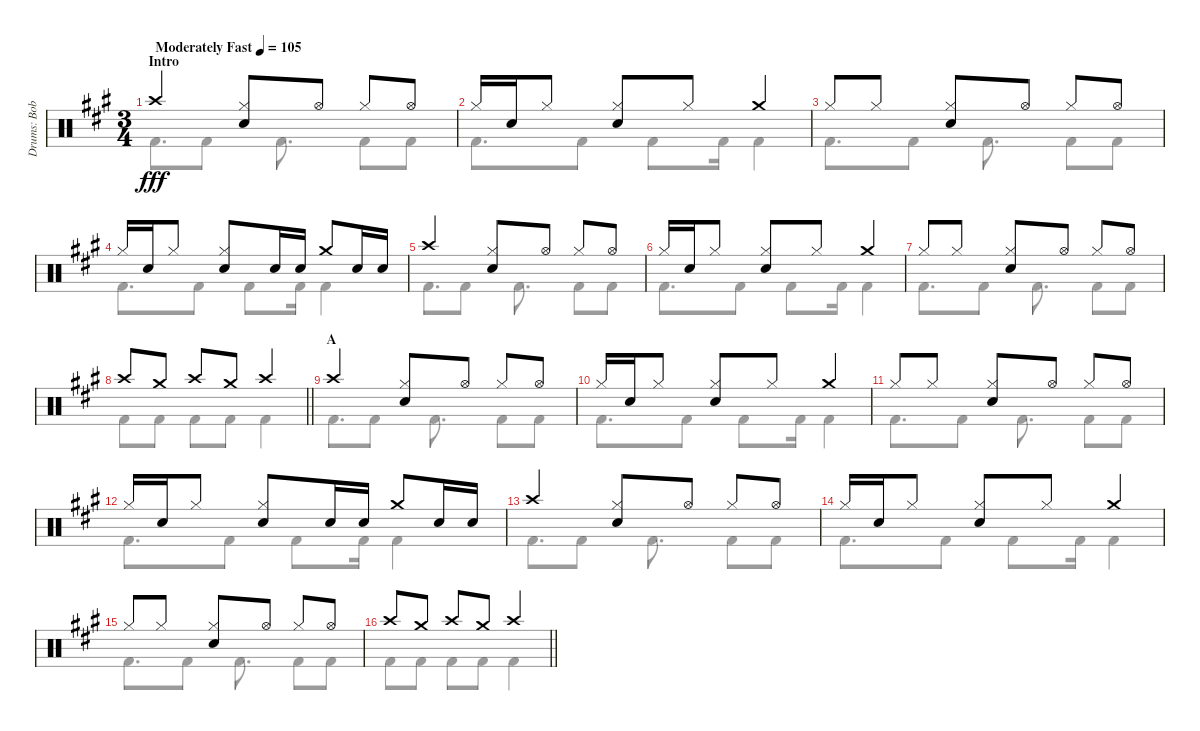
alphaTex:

\track ("Drums: Bobby" "Drums: Bob") {instrument percussion}
\staff {score}
\articulation defaults
\voice
\ts (3 4)
\section ("" "Intro")
\tempo (105 "Moderately Fast")
\clef neutral
\ks a "Crash high (hit)".4{dy fff}
("Hi-Hat (closed)" "Snare (hit) 2").8 "Hi-Hat (open)".8 "Hi-Hat (closed)".8 "Hi-Hat (open)".8 |
"Hi-Hat (closed)".16 "Snare (hit) 2".16 "Hi-Hat (closed)".8 ("Hi-Hat (closed)" "Snare (hit) 2").8 "Hi-Hat (closed)".8 "Crash medium (hit)".4 |
"Hi-Hat (closed)".8 "Hi-Hat (closed)".8 ("Hi-Hat (closed)" "Snare (hit) 2").8 "Hi-Hat (open)".8 "Hi-Hat (closed)".8 "Hi-Hat (open)".8 |
"Hi-Hat (closed)".16 "Snare (hit) 2".16 "Hi-Hat (closed)".8 ("Hi-Hat (closed)" "Snare (hit) 2").8 "Snare (hit) 2".16 "Snare (hit) 2".16 "Crash medium (hit)".8 "Snare (hit) 2".16 "Snare (hit) 2".16 |
"Crash high (hit)".4 ("Hi-Hat (closed)" "Snare (hit) 2").8 "Hi-Hat (open)".8 "Hi-Hat (closed)".8 "Hi-Hat (open)".8 |
"Hi-Hat (closed)".16 "Snare (hit) 2".16 "Hi-Hat (closed)".8 ("Hi-Hat (closed)" "Snare (hit) 2").8 "Hi-Hat (closed)".8 "Crash medium (hit)".4 |
"Hi-Hat (closed)".8 "Hi-Hat (closed)".8 ("Hi-Hat (closed)" "Snare (hit) 2").8 "Hi-Hat (open)".8 "Hi-Hat (closed)".8 "Hi-Hat (open)".8 |
\barLineRight lightlight "Crash high (hit)".8 "Crash medium (hit)".8 "Crash high (hit)".8 "Crash medium (hit)".8 "Crash high (hit)".4
|
\section ("" "A")
"Crash high (hit)".4 ("Hi-Hat (closed)" "Snare (hit) 2").8 "Hi-Hat (open)".8 "Hi-Hat (closed)".8 "Hi-Hat (open)".8 |
"Hi-Hat (closed)".16 "Snare (hit) 2".16 "Hi-Hat (closed)".8 ("Hi-Hat (closed)" "Snare (hit) 2").8 "Hi-Hat (closed)".8 "Crash medium (hit)".4 |
"Hi-Hat (closed)".8 "Hi-Hat (closed)".8 ("Hi-Hat (closed)" "Snare (hit) 2").8 "Hi-Hat (open)".8 "Hi-Hat (closed)".8 "Hi-Hat (open)".8 |
"Hi-Hat (closed)".16 "Snare (hit) 2".16 "Hi-Hat (closed)".8 ("Hi-Hat (closed)" "Snare (hit) 2").8 "Snare (hit) 2".16 "Snare (hit) 2".16 "Crash medium (hit)".8 "Snare (hit) 2".16 "Snare (hit) 2".16 |
"Crash high (hit)".4 ("Hi-Hat (closed)" "Snare (hit) 2").8 "Hi-Hat (open)".8 "Hi-Hat (closed)".8 "Hi-Hat (open)".8 |
"Hi-Hat (closed)".16 "Snare (hit) 2".16 "Hi-Hat (closed)".8 ("Hi-Hat (closed)" "Snare (hit) 2").8 "Hi-Hat (closed)".8 "Crash medium (hit)".4 |
"Hi-Hat (closed)".8 "Hi-Hat (closed)".8 ("Hi-Hat (closed)" "Snare (hit) 2").8 "Hi-Hat (open)".8 "Hi-Hat (closed)".8 "Hi-Hat (open)".8 |
\barLineRight lightlight "Crash high (hit)".8 "Crash medium (hit)".8 "Crash high (hit)".8 "Crash medium (hit)".8 "Crash high (hit)".4
\voice
\clef neutral
\ottava regular
\simile none
\ks a "Kick (hit) 2".8{d dy fff} "Kick (hit) 2".8 "Kick (hit) 2".8{d} "Kick (hit) 2".8 "Kick (hit) 2".8
|
"Kick (hit) 2".8{d} "Kick (hit) 2".8 "Kick (hit) 2".8 "Kick (hit) 2".16 "Kick (hit) 2".4 |
"Kick (hit) 2".8{d} "Kick (hit) 2".8 "Kick (hit) 2".8{d} "Kick (hit) 2".8 "Kick (hit) 2".8 |
"Kick (hit) 2".8{d} "Kick (hit) 2".8 "Kick (hit) 2".8 "Kick (hit) 2".16 "Kick (hit) 2".4 |
"Kick (hit) 2".8{d} "Kick (hit) 2".8 "Kick (hit) 2".8{d} "Kick (hit) 2".8 "Kick (hit) 2".8 |
"Kick (hit) 2".8{d} "Kick (hit) 2".8 "Kick (hit) 2".8 "Kick (hit) 2".16 "Kick (hit) 2".4 |
"Kick (hit) 2".8{d} "Kick (hit) 2".8 "Kick (hit) 2".8{d} "Kick (hit) 2".8 "Kick (hit) 2".8 |
\barLineRight lightlight "Kick (hit) 2".8 "Kick (hit) 2".8 "Kick (hit) 2".8 "Kick (hit) 2".8 "Kick (hit) 2".4
|
"Kick (hit) 2".8{d} "Kick (hit) 2".8 "Kick (hit) 2".8{d} "Kick (hit) 2".8 "Kick (hit) 2".8 |
"Kick (hit) 2".8{d} "Kick (hit) 2".8 "Kick (hit) 2".8 "Kick (hit) 2".16 "Kick (hit) 2".4 |
"Kick (hit) 2".8{d} "Kick (hit) 2".8 "Kick (hit) 2".8{d} "Kick (hit) 2".8 "Kick (hit) 2".8 |
"Kick (hit) 2".8{d} "Kick (hit) 2".8 "Kick (hit) 2".8 "Kick (hit) 2".16 "Kick (hit) 2".4 |
"Kick (hit) 2".8{d} "Kick (hit) 2".8 "Kick (hit) 2".8{d} "Kick (hit) 2".8 "Kick (hit) 2".8 |
"Kick (hit) 2".8{d} "Kick (hit) 2".8 "Kick (hit) 2".8 "Kick (hit) 2".16 "Kick (hit) 2".4 |
"Kick (hit) 2".8{d} "Kick (hit) 2".8 "Kick (hit) 2".8{d} "Kick (hit) 2".8 "Kick (hit) 2".8 |
\barLineRight lightlight "Kick (hit) 2".8 "Kick (hit) 2".8 "Kick (hit) 2".8 "Kick (hit) 2".8 "Kick (hit) 2".4
